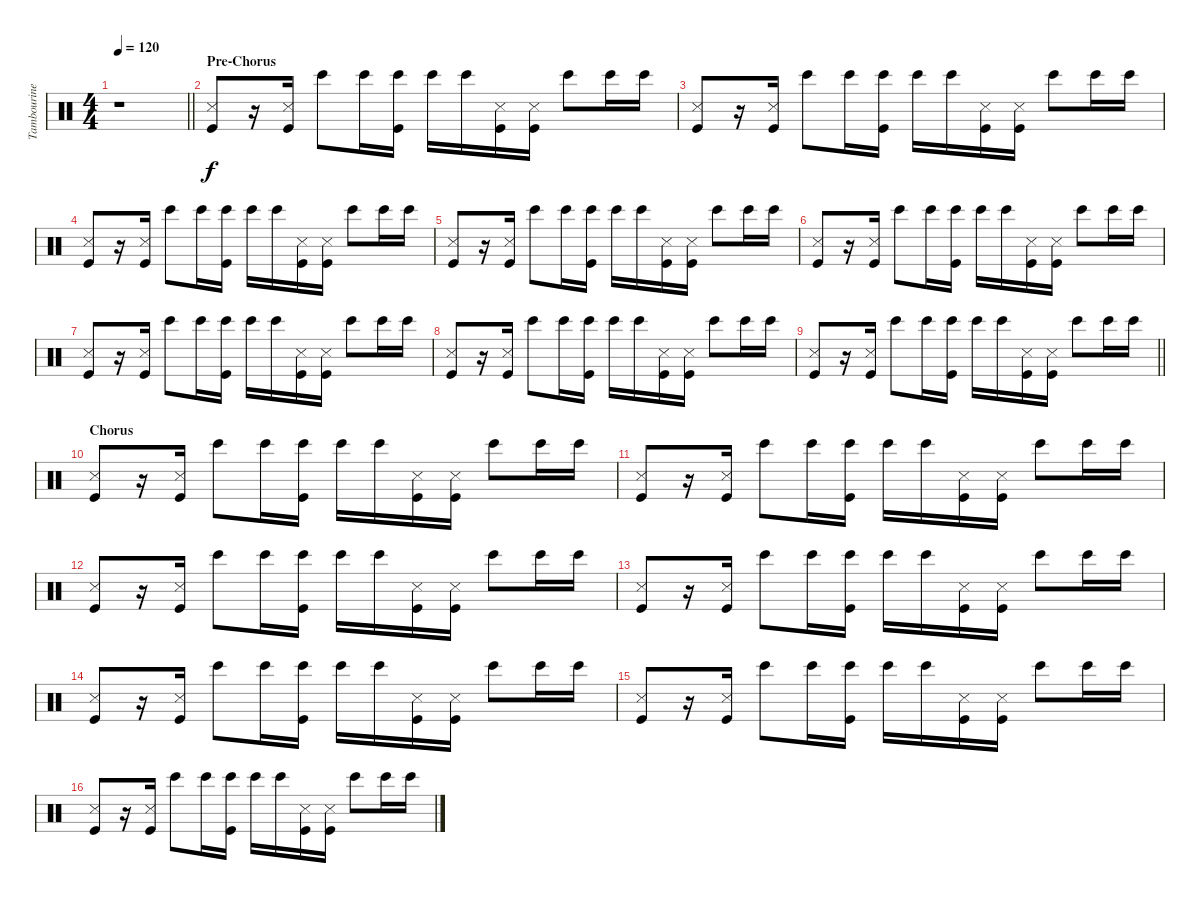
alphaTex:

\track ("Tambourine" "Tambourine") {instrument percussion}
\staff {score}
\articulation defaults
\ts (4 4)
\tempo 120
\clef neutral
\barLineRight lightlight
\ks c
r.1{dy f} |
\section ("" "Pre-Chorus")
("Snare (side stick) 3" "Kick (hit)").8{volume 9} r.16 ("Snare (side stick) 3" "Kick (hit)").16 "Bongo High (hit)".8 "Bongo High (hit)".16 ("Bongo High (hit)" "Kick (hit)").16 "Bongo High (hit)".16 "Bongo High (hit)".16 ("Snare (side stick) 3" "Kick (hit)").16 ("Snare (side stick) 3" "Kick (hit)").16 "Bongo High (hit)".8 "Bongo High (hit)".16 "Bongo High (hit)".16 |
("Snare (side stick) 3" "Kick (hit)").8 r.16 ("Snare (side stick) 3" "Kick (hit)").16 "Bongo High (hit)".8 "Bongo High (hit)".16 ("Bongo High (hit)" "Kick (hit)").16 "Bongo High (hit)".16 "Bongo High (hit)".16 ("Snare (side stick) 3" "Kick (hit)").16 ("Snare (side stick) 3" "Kick (hit)").16 "Bongo High (hit)".8 "Bongo High (hit)".16 "Bongo High (hit)".16 |
("Snare (side stick) 3" "Kick (hit)").8 r.16 ("Snare (side stick) 3" "Kick (hit)").16 "Bongo High (hit)".8 "Bongo High (hit)".16 ("Bongo High (hit)" "Kick (hit)").16 "Bongo High (hit)".16 "Bongo High (hit)".16 ("Snare (side stick) 3" "Kick (hit)").16 ("Snare (side stick) 3" "Kick (hit)").16 "Bongo High (hit)".8 "Bongo High (hit)".16 "Bongo High (hit)".16 |
("Snare (side stick) 3" "Kick (hit)").8 r.16 ("Snare (side stick) 3" "Kick (hit)").16 "Bongo High (hit)".8 "Bongo High (hit)".16 ("Bongo High (hit)" "Kick (hit)").16 "Bongo High (hit)".16 "Bongo High (hit)".16 ("Snare (side stick) 3" "Kick (hit)").16 ("Snare (side stick) 3" "Kick (hit)").16 "Bongo High (hit)".8 "Bongo High (hit)".16 "Bongo High (hit)".16 |
("Snare (side stick) 3" "Kick (hit)").8 r.16 ("Snare (side stick) 3" "Kick (hit)").16 "Bongo High (hit)".8 "Bongo High (hit)".16 ("Bongo High (hit)" "Kick (hit)").16 "Bongo High (hit)".16 "Bongo High (hit)".16 ("Snare (side stick) 3" "Kick (hit)").16 ("Snare (side stick) 3" "Kick (hit)").16 "Bongo High (hit)".8 "Bongo High (hit)".16 "Bongo High (hit)".16 |
("Snare (side stick) 3" "Kick (hit)").8 r.16 ("Snare (side stick) 3" "Kick (hit)").16 "Bongo High (hit)".8 "Bongo High (hit)".16 ("Bongo High (hit)" "Kick (hit)").16 "Bongo High (hit)".16 "Bongo High (hit)".16 ("Snare (side stick) 3" "Kick (hit)").16 ("Snare (side stick) 3" "Kick (hit)").16 "Bongo High (hit)".8 "Bongo High (hit)".16 "Bongo High (hit)".16 |
("Snare (side stick) 3" "Kick (hit)").8{volume 13} r.16 ("Snare (side stick) 3" "Kick (hit)").16 "Bongo High (hit)".8 "Bongo High (hit)".16 ("Bongo High (hit)" "Kick (hit)").16 "Bongo High (hit)".16 "Bongo High (hit)".16 ("Snare (side stick) 3" "Kick (hit)").16 ("Snare (side stick) 3" "Kick (hit)").16 "Bongo High (hit)".8 "Bongo High (hit)".16 "Bongo High (hit)".16 |
\barLineRight lightlight
("Snare (side stick) 3" "Kick (hit)").8 r.16 ("Snare (side stick) 3" "Kick (hit)").16 "Bongo High (hit)".8 "Bongo High (hit)".16 ("Bongo High (hit)" "Kick (hit)").16 "Bongo High (hit)".16 "Bongo High (hit)".16 ("Snare (side stick) 3" "Kick (hit)").16 ("Snare (side stick) 3" "Kick (hit)").16 "Bongo High (hit)".8 "Bongo High (hit)".16 "Bongo High (hit)".16 |
\section ("" "Chorus")
("Snare (side stick) 3" "Kick (hit)").8{volume 11} r.16 ("Snare (side stick) 3" "Kick (hit)").16 "Bongo High (hit)".8 "Bongo High (hit)".16 ("Bongo High (hit)" "Kick (hit)").16 "Bongo High (hit)".16 "Bongo High (hit)".16 ("Snare (side stick) 3" "Kick (hit)").16 ("Snare (side stick) 3" "Kick (hit)").16 "Bongo High (hit)".8 "Bongo High (hit)".16 "Bongo High (hit)".16 |
("Snare (side stick) 3" "Kick (hit)").8 r.16 ("Snare (side stick) 3" "Kick (hit)").16 "Bongo High (hit)".8 "Bongo High (hit)".16 ("Bongo High (hit)" "Kick (hit)").16 "Bongo High (hit)".16 "Bongo High (hit)".16 ("Snare (side stick) 3" "Kick (hit)").16 ("Snare (side stick) 3" "Kick (hit)").16 "Bongo High (hit)".8 "Bongo High (hit)".16 "Bongo High (hit)".16 |
("Snare (side stick) 3" "Kick (hit)").8 r.16 ("Snare (side stick) 3" "Kick (hit)").16 "Bongo High (hit)".8 "Bongo High (hit)".16 ("Bongo High (hit)" "Kick (hit)").16 "Bongo High (hit)".16 "Bongo High (hit)".16 ("Snare (side stick) 3" "Kick (hit)").16 ("Snare (side stick) 3" "Kick (hit)").16 "Bongo High (hit)".8 "Bongo High (hit)".16 "Bongo High (hit)".16 |
("Snare (side stick) 3" "Kick (hit)").8 r.16 ("Snare (side stick) 3" "Kick (hit)").16 "Bongo High (hit)".8 "Bongo High (hit)".16 ("Bongo High (hit)" "Kick (hit)").16 "Bongo High (hit)".16 "Bongo High (hit)".16 ("Snare (side stick) 3" "Kick (hit)").16 ("Snare (side stick) 3" "Kick (hit)").16 "Bongo High (hit)".8 "Bongo High (hit)".16 "Bongo High (hit)".16 |
("Snare (side stick) 3" "Kick (hit)").8 r.16 ("Snare (side stick) 3" "Kick (hit)").16 "Bongo High (hit)".8 "Bongo High (hit)".16 ("Bongo High (hit)" "Kick (hit)").16 "Bongo High (hit)".16 "Bongo High (hit)".16 ("Snare (side stick) 3" "Kick (hit)").16 ("Snare (side stick) 3" "Kick (hit)").16 "Bongo High (hit)".8 "Bongo High (hit)".16 "Bongo High (hit)".16 |
("Snare (side stick) 3" "Kick (hit)").8 r.16 ("Snare (side stick) 3" "Kick (hit)").16 "Bongo High (hit)".8 "Bongo High (hit)".16 ("Bongo High (hit)" "Kick (hit)").16 "Bongo High (hit)".16 "Bongo High (hit)".16 ("Snare (side stick) 3" "Kick (hit)").16 ("Snare (side stick) 3" "Kick (hit)").16 "Bongo High (hit)".8 "Bongo High (hit)".16 "Bongo High (hit)".16 |
("Snare (side stick) 3" "Kick (hit)").8 r.16 ("Snare (side stick) 3" "Kick (hit)").16 "Bongo High (hit)".8 "Bongo High (hit)".16 ("Bongo High (hit)" "Kick (hit)").16 "Bongo High (hit)".16 "Bongo High (hit)".16 ("Snare (side stick) 3" "Kick (hit)").16 ("Snare (side stick) 3" "Kick (hit)").16 "Bongo High (hit)".8 "Bongo High (hit)".16 "Bongo High (hit)".16
